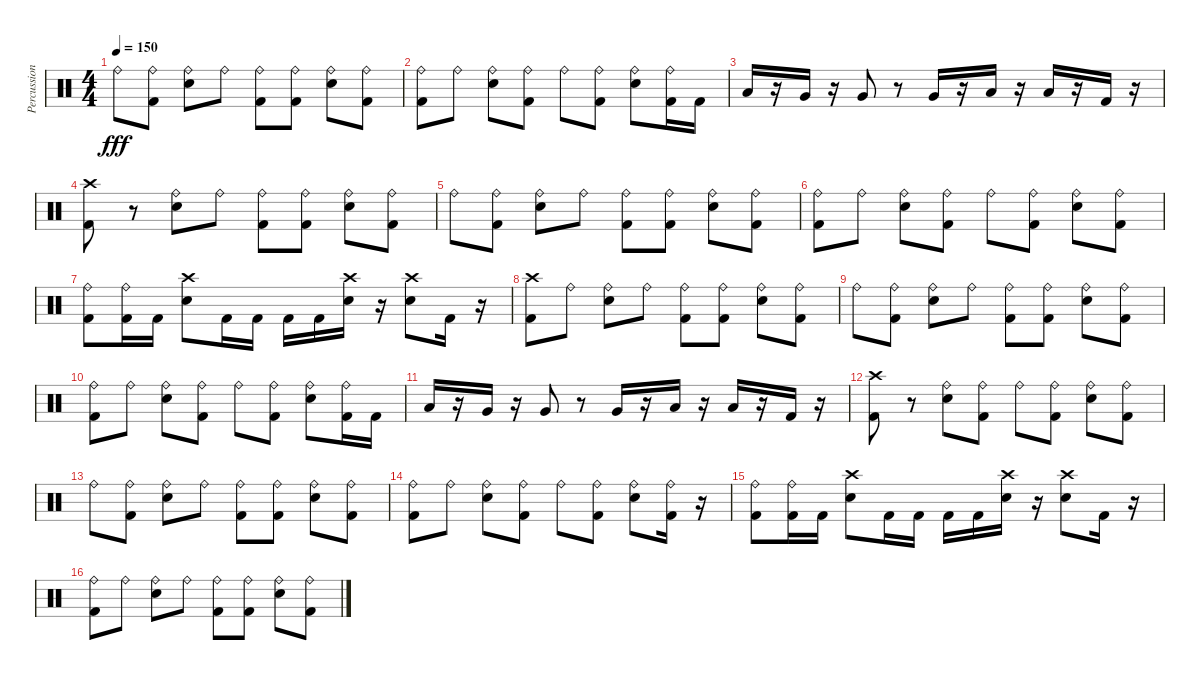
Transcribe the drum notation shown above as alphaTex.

\track ("Percussion" "Percussion") {instrument percussion}
\staff {score}
\articulation defaults
\ts (4 4)
\tempo 150
\clef neutral
\ks c "Ride (bell)".8{dy fff}
("Ride (bell)" "Kick (hit) 2").8 ("Ride (bell)" "Snare (hit) 2").8 "Ride (bell)".8 ("Ride (bell)" "Kick (hit) 2").8 ("Ride (bell)" "Kick (hit) 2").8 ("Ride (bell)" "Snare (hit) 2").8 ("Ride (bell)" "Kick (hit) 2").8 |
("Kick (hit) 2" "Ride (bell)").8 "Ride (bell)".8 ("Snare (hit) 2" "Ride (bell)").8 ("Kick (hit) 2" "Ride (bell)").8 "Ride (bell)".8 ("Kick (hit) 2" "Ride (bell)").8 ("Snare (hit) 2" "Ride (bell)").8 ("Kick (hit) 2" "Ride (bell)").16 "Kick (hit) 2".16 |
"Low Tom (hit)".16 r.16 "Very Low Tom (hit)".16 r.16 "Very Low Tom (hit)".8 r.8 "Very Low Tom (hit)".16 r.16 "Low Floor Tom (hit)".16 r.16 "Low Floor Tom (hit)".16 r.16 "Kick (hit) 2".16 r.16 |
("Kick (hit) 2" "Crash high (hit)").8 r.8 ("Ride (bell)" "Snare (hit) 2").8 "Ride (bell)".8 ("Ride (bell)" "Kick (hit) 2").8 ("Ride (bell)" "Kick (hit) 2").8 ("Ride (bell)" "Snare (hit) 2").8 ("Ride (bell)" "Kick (hit) 2").8 |
"Ride (bell)".8 ("Ride (bell)" "Kick (hit) 2").8 ("Ride (bell)" "Snare (hit) 2").8 "Ride (bell)".8 ("Ride (bell)" "Kick (hit) 2").8 ("Ride (bell)" "Kick (hit) 2").8 ("Ride (bell)" "Snare (hit) 2").8 ("Ride (bell)" "Kick (hit) 2").8 |
("Ride (bell)" "Kick (hit) 2").8 "Ride (bell)".8 ("Ride (bell)" "Snare (hit) 2").8 ("Ride (bell)" "Kick (hit) 2").8 "Ride (bell)".8 ("Ride (bell)" "Kick (hit) 2").8 ("Ride (bell)" "Snare (hit) 2").8 ("Ride (bell)" "Kick (hit) 2").8 |
("Ride (bell)" "Kick (hit) 2").8 ("Ride (bell)" "Kick (hit) 2").16 "Kick (hit) 2".16 ("Crash high (hit)" "Snare (hit) 2").8 "Kick (hit) 2".16 "Kick (hit) 2".16 "Kick (hit) 2".16 "Kick (hit) 2".16 ("Crash high (hit)" "Snare (hit) 2").16 r.16 ("Crash high (hit)" "Snare (hit) 2").8 "Kick (hit) 2".16 r.16 |
("Kick (hit) 2" "Crash high (hit)").8 "Ride (bell)".8 ("Ride (bell)" "Snare (hit) 2").8 "Ride (bell)".8 ("Ride (bell)" "Kick (hit) 2").8 ("Ride (bell)" "Kick (hit) 2").8 ("Ride (bell)" "Snare (hit) 2").8 ("Ride (bell)" "Kick (hit) 2").8 |
"Ride (bell)".8 ("Ride (bell)" "Kick (hit) 2").8 ("Ride (bell)" "Snare (hit) 2").8 "Ride (bell)".8 ("Ride (bell)" "Kick (hit) 2").8 ("Ride (bell)" "Kick (hit) 2").8 ("Ride (bell)" "Snare (hit) 2").8 ("Ride (bell)" "Kick (hit) 2").8 |
("Kick (hit) 2" "Ride (bell)").8 "Ride (bell)".8 ("Snare (hit) 2" "Ride (bell)").8 ("Kick (hit) 2" "Ride (bell)").8 "Ride (bell)".8 ("Kick (hit) 2" "Ride (bell)").8 ("Snare (hit) 2" "Ride (bell)").8 ("Kick (hit) 2" "Ride (bell)").16 "Kick (hit) 2".16 |
"Low Tom (hit)".16 r.16 "Very Low Tom (hit)".16 r.16 "Very Low Tom (hit)".8 r.8 "Very Low Tom (hit)".16 r.16 "Low Floor Tom (hit)".16 r.16 "Low Floor Tom (hit)".16 r.16 "Kick (hit) 2".16 r.16 |
("Kick (hit) 2" "Crash high (hit)").8 r.8 ("Ride (bell)" "Snare (hit) 2").8 ("Ride (bell)" "Kick (hit) 2").8 "Ride (bell)".8 ("Ride (bell)" "Kick (hit) 2").8 ("Ride (bell)" "Snare (hit) 2").8 ("Ride (bell)" "Kick (hit) 2").8 |
"Ride (bell)".8 ("Ride (bell)" "Kick (hit) 2").8 ("Ride (bell)" "Snare (hit) 2").8 "Ride (bell)".8 ("Ride (bell)" "Kick (hit) 2").8 ("Ride (bell)" "Kick (hit) 2").8 ("Ride (bell)" "Snare (hit) 2").8 ("Ride (bell)" "Kick (hit) 2").8 |
("Ride (bell)" "Kick (hit) 2").8 "Ride (bell)".8 ("Ride (bell)" "Snare (hit) 2").8 ("Ride (bell)" "Kick (hit) 2").8 "Ride (bell)".8 ("Ride (bell)" "Kick (hit) 2").8 ("Ride (bell)" "Snare (hit) 2").8 ("Kick (hit) 2" "Ride (bell)").16 r.16 |
("Kick (hit) 2" "Ride (bell)").8 ("Ride (bell)" "Kick (hit) 2").16 "Kick (hit) 2".16 ("Crash high (hit)" "Snare (hit) 2").8 "Kick (hit) 2".16 "Kick (hit) 2".16 "Kick (hit) 2".16 "Kick (hit) 2".16 ("Crash high (hit)" "Snare (hit) 2").16 r.16 ("Crash high (hit)" "Snare (hit) 2").8 "Kick (hit) 2".16 r.16 |
("Ride (bell)" "Kick (hit) 2").8 "Ride (bell)".8 ("Ride (bell)" "Snare (hit) 2").8 "Ride (bell)".8 ("Ride (bell)" "Kick (hit) 2").8 ("Ride (bell)" "Kick (hit) 2").8 ("Ride (bell)" "Snare (hit) 2").8 ("Ride (bell)" "Kick (hit) 2").8
